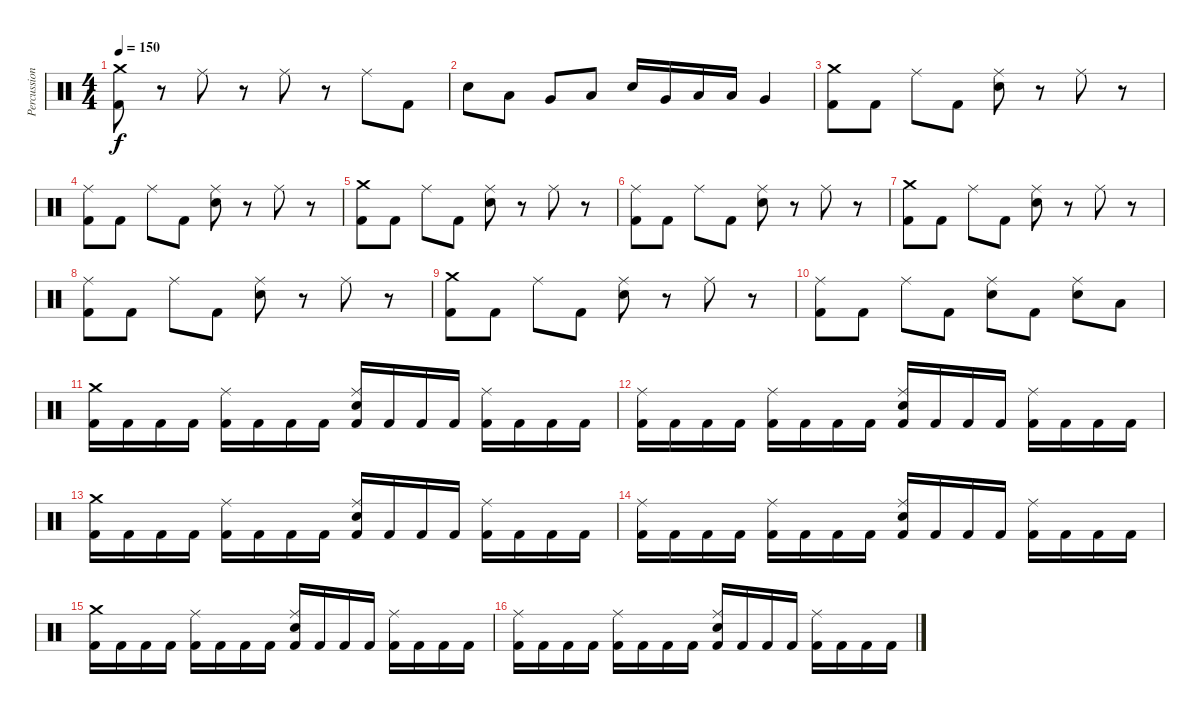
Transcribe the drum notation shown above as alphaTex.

\track ("Percussion" "Percussion") {instrument percussion}
\staff {score}
\articulation defaults
\ts (4 4)
\tempo 150
\clef neutral
\ks c
("Crash medium (hit)" "Kick (hit) 2").8{dy f} r.8 "Ride (middle)".8 r.8 "Ride (middle)".8 r.8 "Ride (middle)".8 "Kick (hit) 2".8 |
"Electric Snare (hit)".8 "Low Tom (hit)".8 "Very Low Tom (hit)".8 "Low Floor Tom (hit)".8 "Electric Snare (hit)".16 "Very Low Tom (hit)".16 "Low Floor Tom (hit)".16 "Low Floor Tom (hit)".16 "Very Low Tom (hit)".4 |
("Crash medium (hit)" "Kick (hit) 2").8 "Kick (hit) 2".8 "Ride (middle)".8 "Kick (hit) 2".8 ("Ride (middle)" "Electric Snare (hit)").8 r.8 "Ride (middle)".8 r.8 |
("Ride (middle)" "Kick (hit) 2").8 "Kick (hit) 2".8 "Ride (middle)".8 "Kick (hit) 2".8 ("Ride (middle)" "Electric Snare (hit)").8 r.8 "Ride (middle)".8 r.8 |
("Crash medium (hit)" "Kick (hit) 2").8 "Kick (hit) 2".8 "Ride (middle)".8 "Kick (hit) 2".8 ("Ride (middle)" "Electric Snare (hit)").8 r.8 "Ride (middle)".8 r.8 |
("Ride (middle)" "Kick (hit) 2").8 "Kick (hit) 2".8 "Ride (middle)".8 "Kick (hit) 2".8 ("Ride (middle)" "Electric Snare (hit)").8 r.8 "Ride (middle)".8 r.8 |
("Crash medium (hit)" "Kick (hit) 2").8 "Kick (hit) 2".8 "Ride (middle)".8 "Kick (hit) 2".8 ("Ride (middle)" "Electric Snare (hit)").8 r.8 "Ride (middle)".8 r.8 |
("Ride (middle)" "Kick (hit) 2").8 "Kick (hit) 2".8 "Ride (middle)".8 "Kick (hit) 2".8 ("Ride (middle)" "Electric Snare (hit)").8 r.8 "Ride (middle)".8 r.8 |
("Crash medium (hit)" "Kick (hit) 2").8 "Kick (hit) 2".8 "Ride (middle)".8 "Kick (hit) 2".8 ("Ride (middle)" "Electric Snare (hit)").8 r.8 "Ride (middle)".8 r.8 |
("Ride (middle)" "Kick (hit) 2").8 "Kick (hit) 2".8 "Ride (middle)".8 "Kick (hit) 2".8 ("Ride (middle)" "Electric Snare (hit)").8 "Kick (hit) 2".8 ("Ride (middle)" "Electric Snare (hit)").8 "Low Tom (hit)".8 |
("Crash medium (hit)" "Kick (hit) 2").16 "Kick (hit) 2".16 "Kick (hit) 2".16 "Kick (hit) 2".16 ("Ride (middle)" "Kick (hit) 2").16 "Kick (hit) 2".16 "Kick (hit) 2".16 "Kick (hit) 2".16 ("Ride (middle)" "Electric Snare (hit)" "Kick (hit) 2").16 "Kick (hit) 2".16 "Kick (hit) 2".16 "Kick (hit) 2".16 ("Ride (middle)" "Kick (hit) 2").16 "Kick (hit) 2".16 "Kick (hit) 2".16 "Kick (hit) 2".16 |
("Ride (middle)" "Kick (hit) 2").16 "Kick (hit) 2".16 "Kick (hit) 2".16 "Kick (hit) 2".16 ("Ride (middle)" "Kick (hit) 2").16 "Kick (hit) 2".16 "Kick (hit) 2".16 "Kick (hit) 2".16 ("Ride (middle)" "Electric Snare (hit)" "Kick (hit) 2").16 "Kick (hit) 2".16 "Kick (hit) 2".16 "Kick (hit) 2".16 ("Ride (middle)" "Kick (hit) 2").16 "Kick (hit) 2".16 "Kick (hit) 2".16 "Kick (hit) 2".16 |
("Crash medium (hit)" "Kick (hit) 2").16 "Kick (hit) 2".16 "Kick (hit) 2".16 "Kick (hit) 2".16 ("Ride (middle)" "Kick (hit) 2").16 "Kick (hit) 2".16 "Kick (hit) 2".16 "Kick (hit) 2".16 ("Ride (middle)" "Electric Snare (hit)" "Kick (hit) 2").16 "Kick (hit) 2".16 "Kick (hit) 2".16 "Kick (hit) 2".16 ("Ride (middle)" "Kick (hit) 2").16 "Kick (hit) 2".16 "Kick (hit) 2".16 "Kick (hit) 2".16 |
("Ride (middle)" "Kick (hit) 2").16 "Kick (hit) 2".16 "Kick (hit) 2".16 "Kick (hit) 2".16 ("Ride (middle)" "Kick (hit) 2").16 "Kick (hit) 2".16 "Kick (hit) 2".16 "Kick (hit) 2".16 ("Ride (middle)" "Electric Snare (hit)" "Kick (hit) 2").16 "Kick (hit) 2".16 "Kick (hit) 2".16 "Kick (hit) 2".16 ("Ride (middle)" "Kick (hit) 2").16 "Kick (hit) 2".16 "Kick (hit) 2".16 "Kick (hit) 2".16 |
("Crash medium (hit)" "Kick (hit) 2").16 "Kick (hit) 2".16 "Kick (hit) 2".16 "Kick (hit) 2".16 ("Ride (middle)" "Kick (hit) 2").16 "Kick (hit) 2".16 "Kick (hit) 2".16 "Kick (hit) 2".16 ("Ride (middle)" "Electric Snare (hit)" "Kick (hit) 2").16 "Kick (hit) 2".16 "Kick (hit) 2".16 "Kick (hit) 2".16 ("Ride (middle)" "Kick (hit) 2").16 "Kick (hit) 2".16 "Kick (hit) 2".16 "Kick (hit) 2".16 |
("Ride (middle)" "Kick (hit) 2").16 "Kick (hit) 2".16 "Kick (hit) 2".16 "Kick (hit) 2".16 ("Ride (middle)" "Kick (hit) 2").16 "Kick (hit) 2".16 "Kick (hit) 2".16 "Kick (hit) 2".16 ("Ride (middle)" "Electric Snare (hit)" "Kick (hit) 2").16 "Kick (hit) 2".16 "Kick (hit) 2".16 "Kick (hit) 2".16 ("Ride (middle)" "Kick (hit) 2").16 "Kick (hit) 2".16 "Kick (hit) 2".16 "Kick (hit) 2".16
